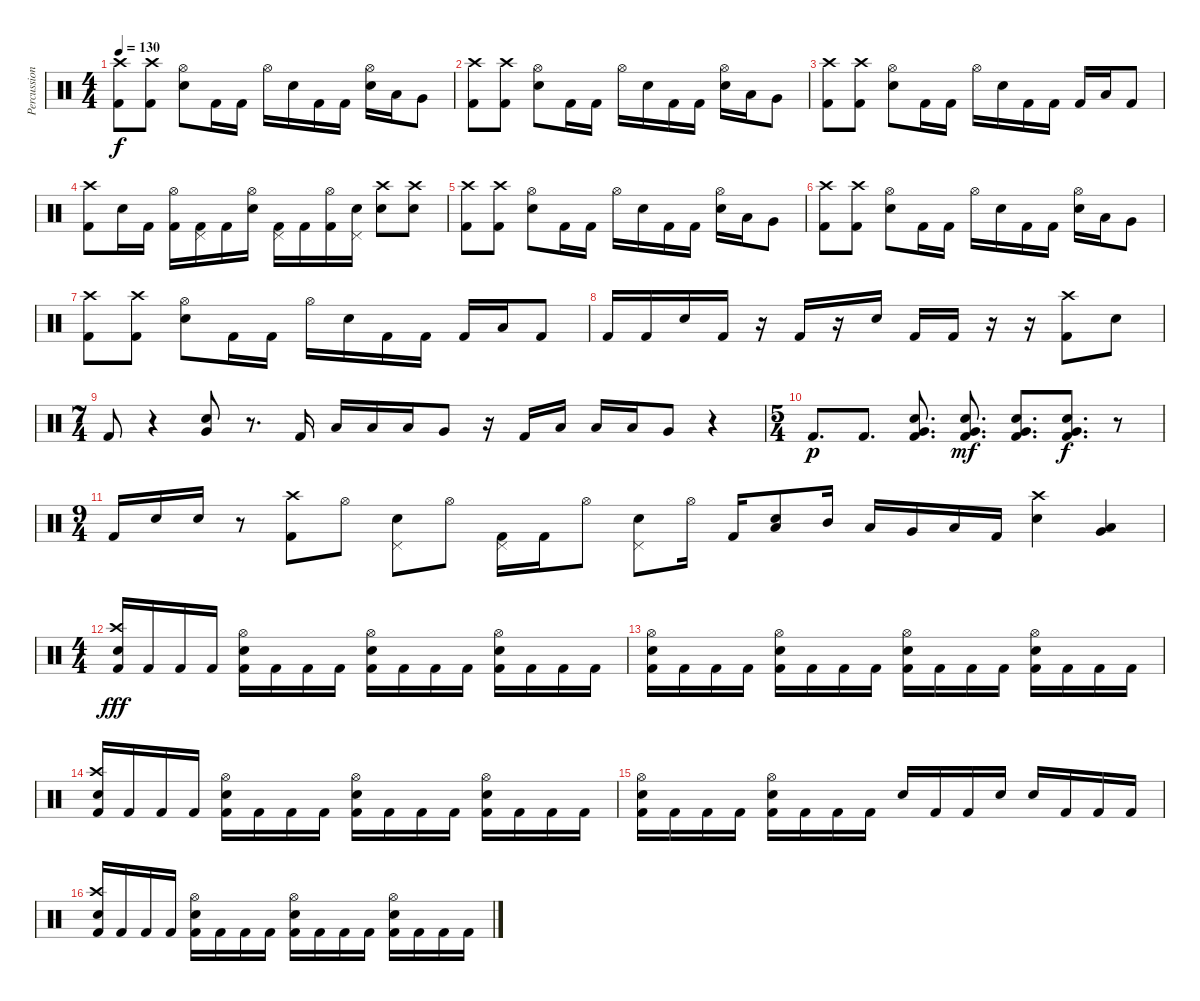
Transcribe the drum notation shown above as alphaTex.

\track ("Percussion" "Percussion") {instrument percussion}
\staff {score}
\articulation defaults
\ts (4 4)
\tempo 130
\clef neutral
\ks c
("Kick (hit) 2" "Crash high (hit)").8{dy f} ("Kick (hit) 2" "Crash high (hit)").8 ("Snare (hit) 2" "Hi-Hat (open)").8 "Kick (hit) 2".16 "Kick (hit) 2".16 "Hi-Hat (open)".16 "Snare (hit) 2".16 "Kick (hit) 2".16 "Kick (hit) 2".16 ("Snare (hit) 2" "Hi-Hat (open)").16 "Low Tom (hit)".16 "Very Low Tom (hit)".8 |
("Kick (hit) 2" "Crash high (hit)").8 ("Kick (hit) 2" "Crash high (hit)").8 ("Snare (hit) 2" "Hi-Hat (open)").8 "Kick (hit) 2".16 "Kick (hit) 2".16 "Hi-Hat (open)".16 "Snare (hit) 2".16 "Kick (hit) 2".16 "Kick (hit) 2".16 ("Snare (hit) 2" "Hi-Hat (open)").16 "Low Tom (hit)".16 "Very Low Tom (hit)".8 |
("Kick (hit) 2" "Crash high (hit)").8 ("Kick (hit) 2" "Crash high (hit)").8 ("Snare (hit) 2" "Hi-Hat (open)").8 "Kick (hit) 2".16 "Kick (hit) 2".16 "Hi-Hat (open)".16 "Snare (hit) 2".16 "Kick (hit) 2".16 "Kick (hit) 2".16 "Kick (hit) 2".16 "Low Tom (hit)".16 "Kick (hit) 2".8 |
("Kick (hit) 2" "Crash high (hit)").8 "Snare (hit) 2".16 "Kick (hit) 2".16 ("Kick (hit) 2" "Hi-Hat (open)").16 ("Pedal Hi-Hat (hit)" "Kick (hit) 2").16 "Kick (hit) 2".16 ("Snare (hit) 2" "Hi-Hat (open)").16 ("Kick (hit) 2" "Pedal Hi-Hat (hit)").16 "Kick (hit) 2".16 ("Kick (hit) 2" "Hi-Hat (open)").16 ("Snare (hit) 2" "Pedal Hi-Hat (hit)").16 ("Crash high (hit)" "Snare (hit) 2").8 ("Snare (hit) 2" "Crash high (hit)").8 |
("Kick (hit) 2" "Crash high (hit)").8 ("Kick (hit) 2" "Crash high (hit)").8 ("Snare (hit) 2" "Hi-Hat (open)").8 "Kick (hit) 2".16 "Kick (hit) 2".16 "Hi-Hat (open)".16 "Snare (hit) 2".16 "Kick (hit) 2".16 "Kick (hit) 2".16 ("Snare (hit) 2" "Hi-Hat (open)").16 "Low Tom (hit)".16 "Very Low Tom (hit)".8 |
("Kick (hit) 2" "Crash high (hit)").8 ("Kick (hit) 2" "Crash high (hit)").8 ("Snare (hit) 2" "Hi-Hat (open)").8 "Kick (hit) 2".16 "Kick (hit) 2".16 "Hi-Hat (open)".16 "Snare (hit) 2".16 "Kick (hit) 2".16 "Kick (hit) 2".16 ("Snare (hit) 2" "Hi-Hat (open)").16 "Low Tom (hit)".16 "Very Low Tom (hit)".8 |
("Kick (hit) 2" "Crash high (hit)").8 ("Kick (hit) 2" "Crash high (hit)").8 ("Snare (hit) 2" "Hi-Hat (open)").8 "Kick (hit) 2".16 "Kick (hit) 2".16 "Hi-Hat (open)".16 "Snare (hit) 2".16 "Kick (hit) 2".16 "Kick (hit) 2".16 "Kick (hit) 2".16 "Low Tom (hit)".16 "Kick (hit) 2".8 |
"Kick (hit) 2".16 "Kick (hit) 2".16 "Snare (hit) 2".16 "Kick (hit) 2".16 r.16 "Kick (hit) 2".16 r.16 "Snare (hit) 2".16 "Kick (hit) 2".16 "Kick (hit) 2".16 r.16 r.16 ("Kick (hit) 2" "Crash high (hit)").8 "Snare (hit) 2".8 |
\ts (7 4)
"Kick (hit) 2".8 r.4 ("Snare (hit) 2" "Very Low Tom (hit)").8 r.8{d} "Kick (hit) 2".16 "Low Tom (hit)".16 "Low Tom (hit)".16 "Low Tom (hit)".16 "Very Low Tom (hit)".8 r.16 "Kick (hit) 2".16 "Low Tom (hit)".16 "Low Tom (hit)".16 "Low Tom (hit)".16 "Very Low Tom (hit)".8 r.4 |
\ts (5 4)
"Kick (hit) 2".8{d dy p} "Kick (hit) 2".8{d} ("Kick (hit) 2" "Snare (hit) 2" "Very Low Tom (hit)").8{d} ("Kick (hit) 2" "Snare (hit) 2" "Very Low Tom (hit)").8{d dy mf} ("Kick (hit) 2" "Snare (hit) 2" "Very Low Tom (hit)").8{d} ("Kick (hit) 2" "Snare (hit) 2" "Very Low Tom (hit)").8{d dy f} r.8 |
\ts (9 4)
"Kick (hit) 2".16 "Snare (hit) 2".16 "Snare (hit) 2".16 r.8 ("Kick (hit) 2" "Crash high (hit)").8 "Hi-Hat (open)".8 ("Snare (hit) 2" "Pedal Hi-Hat (hit)").8 "Hi-Hat (open)".8 ("Kick (hit) 2" "Pedal Hi-Hat (hit)").16 "Kick (hit) 2".16 "Hi-Hat (open)".8 ("Snare (hit) 2" "Pedal Hi-Hat (hit)").8 "Hi-Hat (open)".16 "Kick (hit) 2".16 ("Snare (hit) 2" "Low Tom (hit)").8 "Mid Tom (hit)".16 "Low Tom (hit)".16 "Very Low Tom (hit)".16 "Low Floor Tom (hit)".16 "Kick (hit) 2".16 ("Snare (hit) 2" "Crash high (hit)").4 ("Low Tom (hit)" "Very Low Tom (hit)").4 |
\ts (4 4)
("Kick (hit) 2" "Snare (hit) 2" "Crash high (hit)").16{dy fff} "Kick (hit) 2".16 "Kick (hit) 2".16 "Kick (hit) 2".16 ("Kick (hit) 2" "Snare (hit) 2" "Hi-Hat (open)").16 "Kick (hit) 2".16 "Kick (hit) 2".16 "Kick (hit) 2".16 ("Kick (hit) 2" "Snare (hit) 2" "Hi-Hat (open)").16 "Kick (hit) 2".16 "Kick (hit) 2".16 "Kick (hit) 2".16 ("Kick (hit) 2" "Snare (hit) 2" "Hi-Hat (open)").16 "Kick (hit) 2".16 "Kick (hit) 2".16 "Kick (hit) 2".16 |
("Kick (hit) 2" "Snare (hit) 2" "Hi-Hat (open)").16 "Kick (hit) 2".16 "Kick (hit) 2".16 "Kick (hit) 2".16 ("Kick (hit) 2" "Snare (hit) 2" "Hi-Hat (open)").16 "Kick (hit) 2".16 "Kick (hit) 2".16 "Kick (hit) 2".16 ("Kick (hit) 2" "Snare (hit) 2" "Hi-Hat (open)").16 "Kick (hit) 2".16 "Kick (hit) 2".16 "Kick (hit) 2".16 ("Kick (hit) 2" "Snare (hit) 2" "Hi-Hat (open)").16 "Kick (hit) 2".16 "Kick (hit) 2".16 "Kick (hit) 2".16 |
("Kick (hit) 2" "Snare (hit) 2" "Crash high (hit)").16 "Kick (hit) 2".16 "Kick (hit) 2".16 "Kick (hit) 2".16 ("Kick (hit) 2" "Snare (hit) 2" "Hi-Hat (open)").16 "Kick (hit) 2".16 "Kick (hit) 2".16 "Kick (hit) 2".16 ("Kick (hit) 2" "Snare (hit) 2" "Hi-Hat (open)").16 "Kick (hit) 2".16 "Kick (hit) 2".16 "Kick (hit) 2".16 ("Kick (hit) 2" "Snare (hit) 2" "Hi-Hat (open)").16 "Kick (hit) 2".16 "Kick (hit) 2".16 "Kick (hit) 2".16 |
("Kick (hit) 2" "Snare (hit) 2" "Hi-Hat (open)").16 "Kick (hit) 2".16 "Kick (hit) 2".16 "Kick (hit) 2".16 ("Kick (hit) 2" "Snare (hit) 2" "Hi-Hat (open)").16 "Kick (hit) 2".16 "Kick (hit) 2".16 "Kick (hit) 2".16 "Snare (hit) 2".16 "Kick (hit) 2".16 "Kick (hit) 2".16 "Snare (hit) 2".16 "Snare (hit) 2".16 "Kick (hit) 2".16 "Kick (hit) 2".16 "Kick (hit) 2".16 |
("Kick (hit) 2" "Snare (hit) 2" "Crash high (hit)").16 "Kick (hit) 2".16 "Kick (hit) 2".16 "Kick (hit) 2".16 ("Kick (hit) 2" "Snare (hit) 2" "Hi-Hat (open)").16 "Kick (hit) 2".16 "Kick (hit) 2".16 "Kick (hit) 2".16 ("Kick (hit) 2" "Snare (hit) 2" "Hi-Hat (open)").16 "Kick (hit) 2".16 "Kick (hit) 2".16 "Kick (hit) 2".16 ("Kick (hit) 2" "Snare (hit) 2" "Hi-Hat (open)").16 "Kick (hit) 2".16 "Kick (hit) 2".16 "Kick (hit) 2".16
